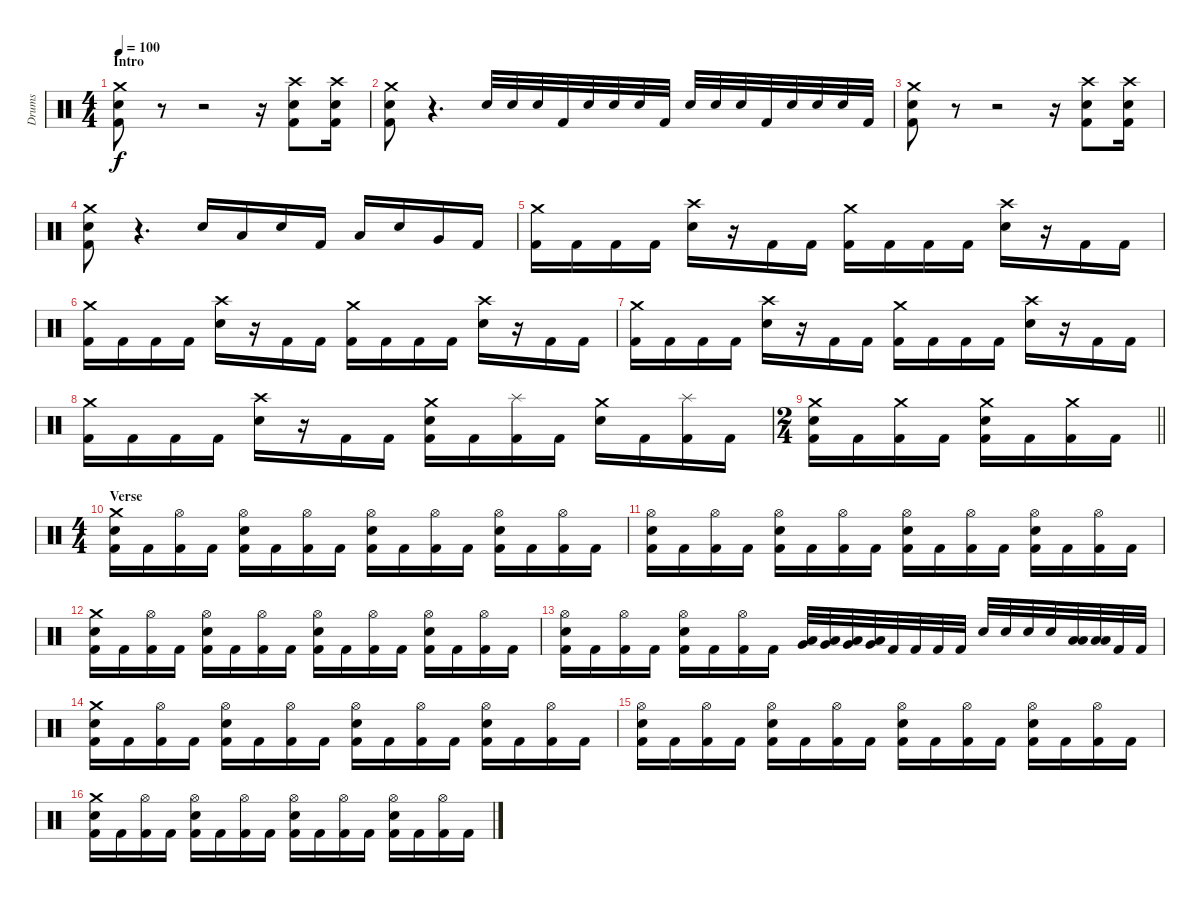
\track ("Drums" "Drums") {instrument percussion}
\staff {score}
\articulation defaults
\ts (4 4)
\section ("" "Intro")
\tempo 100
\clef neutral
\ks c
("Crash medium (hit)" "Snare (hit) 2" "Kick (hit) 2").8{dy f} r.8 r.2 r.16 ("Crash high (hit)" "Snare (hit) 2" "Kick (hit) 2").8 ("Crash high (hit)" "Snare (hit) 2" "Kick (hit) 2").16 |
("Crash medium (hit)" "Snare (hit) 2" "Kick (hit) 2").8 r.4{d} "Electric Snare (hit)".32 "Electric Snare (hit)".32 "Electric Snare (hit)".32 "Kick (hit) 2".32 "Electric Snare (hit)".32 "Electric Snare (hit)".32 "Electric Snare (hit)".32 "Kick (hit) 2".32 "Electric Snare (hit)".32 "Electric Snare (hit)".32 "Electric Snare (hit)".32 "Kick (hit) 2".32 "Electric Snare (hit)".32 "Electric Snare (hit)".32 "Electric Snare (hit)".32 "Kick (hit) 2".32 |
("Crash medium (hit)" "Snare (hit) 2" "Kick (hit) 2").8 r.8 r.2 r.16 ("Crash high (hit)" "Snare (hit) 2" "Kick (hit) 2").8 ("Crash high (hit)" "Snare (hit) 2" "Kick (hit) 2").16 |
("Crash medium (hit)" "Snare (hit) 2" "Kick (hit) 2").8 r.4{d} "Electric Snare (hit)".16 "Low Tom (hit)".16 "Electric Snare (hit)".16 "Kick (hit) 2".16 "Low Tom (hit)".16 "Electric Snare (hit)".16 "Very Low Tom (hit)".16 "Kick (hit) 2".16 |
("Crash medium (hit)" "Kick (hit) 2").16 "Kick (hit) 2".16 "Kick (hit) 2".16 "Kick (hit) 2".16 ("Crash high (hit)" "Snare (hit) 2").16 r.16 "Kick (hit) 2".16 "Kick (hit) 2".16 ("Crash medium (hit)" "Kick (hit) 2").16 "Kick (hit) 2".16 "Kick (hit) 2".16 "Kick (hit) 2".16 ("Crash high (hit)" "Snare (hit) 2").16 r.16 "Kick (hit) 2".16 "Kick (hit) 2".16 |
("Crash medium (hit)" "Kick (hit) 2").16 "Kick (hit) 2".16 "Kick (hit) 2".16 "Kick (hit) 2".16 ("Crash high (hit)" "Snare (hit) 2").16 r.16 "Kick (hit) 2".16 "Kick (hit) 2".16 ("Crash medium (hit)" "Kick (hit) 2").16 "Kick (hit) 2".16 "Kick (hit) 2".16 "Kick (hit) 2".16 ("Crash high (hit)" "Snare (hit) 2").16 r.16 "Kick (hit) 2".16 "Kick (hit) 2".16 |
("Crash medium (hit)" "Kick (hit) 2").16 "Kick (hit) 2".16 "Kick (hit) 2".16 "Kick (hit) 2".16 ("Crash high (hit)" "Snare (hit) 2").16 r.16 "Kick (hit) 2".16 "Kick (hit) 2".16 ("Crash medium (hit)" "Kick (hit) 2").16 "Kick (hit) 2".16 "Kick (hit) 2".16 "Kick (hit) 2".16 ("Crash high (hit)" "Snare (hit) 2").16 r.16 "Kick (hit) 2".16 "Kick (hit) 2".16 |
("Crash medium (hit)" "Kick (hit) 2").16 "Kick (hit) 2".16 "Kick (hit) 2".16 "Kick (hit) 2".16 ("Crash high (hit)" "Snare (hit) 2").16 r.16 "Kick (hit) 2".16 "Kick (hit) 2".16 ("Crash medium (hit)" "Snare (hit) 2" "Kick (hit) 2").16 "Kick (hit) 2".16 ("Splash (hit)" "Kick (hit) 2").16 "Kick (hit) 2".16 ("Crash medium (hit)" "Snare (hit) 2").16 "Kick (hit) 2".16 ("Splash (hit)" "Kick (hit) 2").16 "Kick (hit) 2".16 |
\ts (2 4)
\barLineRight lightlight
("Crash medium (hit)" "Snare (hit) 2" "Kick (hit) 2").16 "Kick (hit) 2".16 ("Crash medium (hit)" "Kick (hit) 2").16 "Kick (hit) 2".16 ("Crash medium (hit)" "Snare (hit) 2" "Kick (hit) 2").16 "Kick (hit) 2".16 ("Crash medium (hit)" "Kick (hit) 2").16 "Kick (hit) 2".16 |
\ts (4 4)
\section ("" "Verse")
("Crash medium (hit)" "Snare (hit) 2" "Kick (hit) 2").16 "Kick (hit) 2".16 ("Hi-Hat (open)" "Kick (hit) 2").16 "Kick (hit) 2".16 ("Hi-Hat (open)" "Snare (hit) 2" "Kick (hit) 2").16 "Kick (hit) 2".16 ("Hi-Hat (open)" "Kick (hit) 2").16 "Kick (hit) 2".16 ("Hi-Hat (open)" "Snare (hit) 2" "Kick (hit) 2").16 "Kick (hit) 2".16 ("Hi-Hat (open)" "Kick (hit) 2").16 "Kick (hit) 2".16 ("Hi-Hat (open)" "Snare (hit) 2" "Kick (hit) 2").16 "Kick (hit) 2".16 ("Hi-Hat (open)" "Kick (hit) 2").16 "Kick (hit) 2".16 |
("Hi-Hat (open)" "Snare (hit) 2" "Kick (hit) 2").16 "Kick (hit) 2".16 ("Hi-Hat (open)" "Kick (hit) 2").16 "Kick (hit) 2".16 ("Hi-Hat (open)" "Snare (hit) 2" "Kick (hit) 2").16 "Kick (hit) 2".16 ("Hi-Hat (open)" "Kick (hit) 2").16 "Kick (hit) 2".16 ("Hi-Hat (open)" "Snare (hit) 2" "Kick (hit) 2").16 "Kick (hit) 2".16 ("Hi-Hat (open)" "Kick (hit) 2").16 "Kick (hit) 2".16 ("Hi-Hat (open)" "Snare (hit) 2" "Kick (hit) 2").16 "Kick (hit) 2".16 ("Hi-Hat (open)" "Kick (hit) 2").16 "Kick (hit) 2".16 |
("Crash medium (hit)" "Snare (hit) 2" "Kick (hit) 2").16 "Kick (hit) 2".16 ("Hi-Hat (open)" "Kick (hit) 2").16 "Kick (hit) 2".16 ("Hi-Hat (open)" "Snare (hit) 2" "Kick (hit) 2").16 "Kick (hit) 2".16 ("Hi-Hat (open)" "Kick (hit) 2").16 "Kick (hit) 2".16 ("Hi-Hat (open)" "Snare (hit) 2" "Kick (hit) 2").16 "Kick (hit) 2".16 ("Hi-Hat (open)" "Kick (hit) 2").16 "Kick (hit) 2".16 ("Hi-Hat (open)" "Snare (hit) 2" "Kick (hit) 2").16 "Kick (hit) 2".16 ("Hi-Hat (open)" "Kick (hit) 2").16 "Kick (hit) 2".16 |
("Hi-Hat (open)" "Snare (hit) 2" "Kick (hit) 2").16 "Kick (hit) 2".16 ("Hi-Hat (open)" "Kick (hit) 2").16 "Kick (hit) 2".16 ("Hi-Hat (open)" "Snare (hit) 2" "Kick (hit) 2").16 "Kick (hit) 2".16 ("Hi-Hat (open)" "Kick (hit) 2").16 "Kick (hit) 2".16 ("Low Tom (hit)" "Very Low Tom (hit)").32 ("Low Tom (hit)" "Very Low Tom (hit)").32 ("Low Tom (hit)" "Very Low Tom (hit)").32 ("Low Tom (hit)" "Very Low Tom (hit)").32 "Kick (hit) 2".32 "Kick (hit) 2".32 "Kick (hit) 2".32 "Kick (hit) 2".32 "Electric Snare (hit)".32 "Electric Snare (hit)".32 "Electric Snare (hit)".32 "Electric Snare (hit)".32 ("Low Tom (hit)" "Low Tom (hit)").32 ("Low Tom (hit)" "Low Tom (hit)").32 "Kick (hit) 2".32 "Kick (hit) 2".32 |
("Crash medium (hit)" "Snare (hit) 2" "Kick (hit) 2").16 "Kick (hit) 2".16 ("Hi-Hat (open)" "Kick (hit) 2").16 "Kick (hit) 2".16 ("Hi-Hat (open)" "Snare (hit) 2" "Kick (hit) 2").16 "Kick (hit) 2".16 ("Hi-Hat (open)" "Kick (hit) 2").16 "Kick (hit) 2".16 ("Hi-Hat (open)" "Snare (hit) 2" "Kick (hit) 2").16 "Kick (hit) 2".16 ("Hi-Hat (open)" "Kick (hit) 2").16 "Kick (hit) 2".16 ("Hi-Hat (open)" "Snare (hit) 2" "Kick (hit) 2").16 "Kick (hit) 2".16 ("Hi-Hat (open)" "Kick (hit) 2").16 "Kick (hit) 2".16 |
("Hi-Hat (open)" "Snare (hit) 2" "Kick (hit) 2").16 "Kick (hit) 2".16 ("Hi-Hat (open)" "Kick (hit) 2").16 "Kick (hit) 2".16 ("Hi-Hat (open)" "Snare (hit) 2" "Kick (hit) 2").16 "Kick (hit) 2".16 ("Hi-Hat (open)" "Kick (hit) 2").16 "Kick (hit) 2".16 ("Hi-Hat (open)" "Snare (hit) 2" "Kick (hit) 2").16 "Kick (hit) 2".16 ("Hi-Hat (open)" "Kick (hit) 2").16 "Kick (hit) 2".16 ("Hi-Hat (open)" "Snare (hit) 2" "Kick (hit) 2").16 "Kick (hit) 2".16 ("Hi-Hat (open)" "Kick (hit) 2").16 "Kick (hit) 2".16 |
("Crash medium (hit)" "Snare (hit) 2" "Kick (hit) 2").16 "Kick (hit) 2".16 ("Hi-Hat (open)" "Kick (hit) 2").16 "Kick (hit) 2".16 ("Hi-Hat (open)" "Snare (hit) 2" "Kick (hit) 2").16 "Kick (hit) 2".16 ("Hi-Hat (open)" "Kick (hit) 2").16 "Kick (hit) 2".16 ("Hi-Hat (open)" "Snare (hit) 2" "Kick (hit) 2").16 "Kick (hit) 2".16 ("Hi-Hat (open)" "Kick (hit) 2").16 "Kick (hit) 2".16 ("Hi-Hat (open)" "Snare (hit) 2" "Kick (hit) 2").16 "Kick (hit) 2".16 ("Hi-Hat (open)" "Kick (hit) 2").16 "Kick (hit) 2".16
